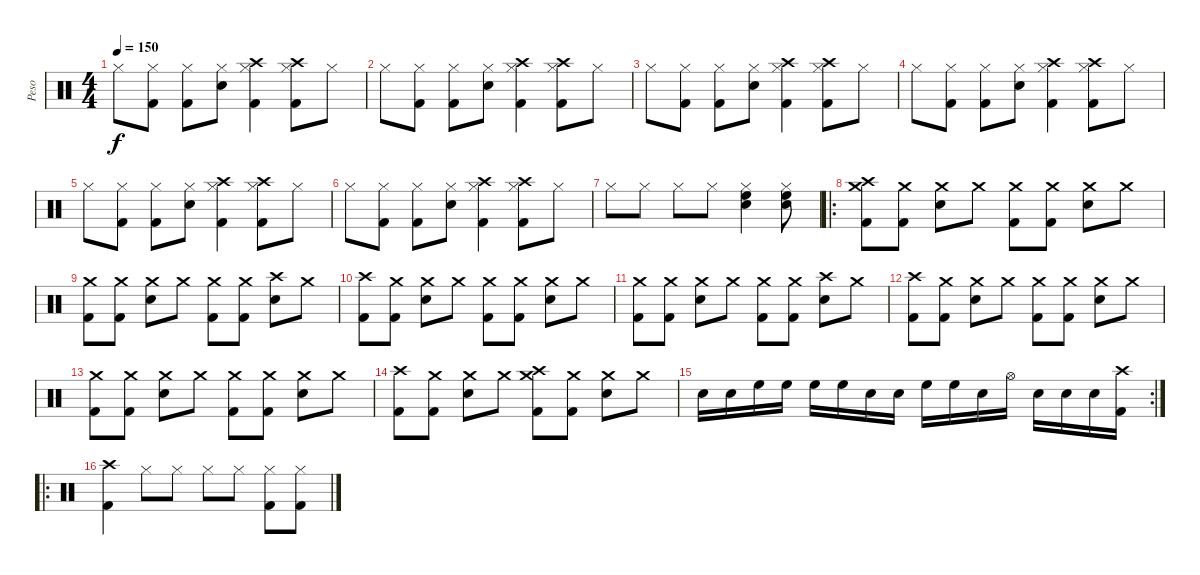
\track ("Peso" "Peso") {instrument percussion}
\staff {score}
\articulation defaults
\ts (4 4)
\tempo 150
\clef neutral
\ks c "Hi-Hat (closed)".8{dy f}
("Hi-Hat (closed)" "Kick (hit) 2").8 ("Hi-Hat (closed)" "Kick (hit) 2").8 ("Hi-Hat (closed)" "Snare (hit) 2").8 ("Crash high (hit)" "Hi-Hat (closed)" "Kick (hit) 2").4 ("Crash high (hit)" "Hi-Hat (closed)" "Kick (hit) 2").8 "Hi-Hat (closed)".8 |
"Hi-Hat (closed)".8 ("Hi-Hat (closed)" "Kick (hit) 2").8 ("Hi-Hat (closed)" "Kick (hit) 2").8 ("Hi-Hat (closed)" "Snare (hit) 2").8 ("Crash high (hit)" "Hi-Hat (closed)" "Kick (hit) 2").4 ("Crash high (hit)" "Hi-Hat (closed)" "Kick (hit) 2").8 "Hi-Hat (closed)".8 |
"Hi-Hat (closed)".8 ("Hi-Hat (closed)" "Kick (hit) 2").8 ("Hi-Hat (closed)" "Kick (hit) 2").8 ("Hi-Hat (closed)" "Snare (hit) 2").8 ("Crash high (hit)" "Hi-Hat (closed)" "Kick (hit) 2").4 ("Crash high (hit)" "Hi-Hat (closed)" "Kick (hit) 2").8 "Hi-Hat (closed)".8 |
"Hi-Hat (closed)".8 ("Hi-Hat (closed)" "Kick (hit) 2").8 ("Hi-Hat (closed)" "Kick (hit) 2").8 ("Hi-Hat (closed)" "Snare (hit) 2").8 ("Crash high (hit)" "Hi-Hat (closed)" "Kick (hit) 2").4 ("Crash high (hit)" "Hi-Hat (closed)" "Kick (hit) 2").8 "Hi-Hat (closed)".8 |
"Hi-Hat (closed)".8 ("Hi-Hat (closed)" "Kick (hit) 2").8 ("Hi-Hat (closed)" "Kick (hit) 2").8 ("Hi-Hat (closed)" "Snare (hit) 2").8 ("Crash high (hit)" "Hi-Hat (closed)" "Kick (hit) 2").4 ("Crash high (hit)" "Hi-Hat (closed)" "Kick (hit) 2").8 "Hi-Hat (closed)".8 |
"Hi-Hat (closed)".8 ("Hi-Hat (closed)" "Kick (hit) 2").8 ("Hi-Hat (closed)" "Kick (hit) 2").8 ("Hi-Hat (closed)" "Snare (hit) 2").8 ("Crash high (hit)" "Hi-Hat (closed)" "Kick (hit) 2").4 ("Crash high (hit)" "Hi-Hat (closed)" "Kick (hit) 2").8 "Hi-Hat (closed)".8 |
"Hi-Hat (closed)".8 "Hi-Hat (closed)".8 "Hi-Hat (closed)".8 "Hi-Hat (closed)".8 ("Hi-Hat (closed)" "Snare (hit) 2" "High Floor Tom (hit)").4 ("Hi-Hat (closed)" "Snare (hit) 2" "High Floor Tom (hit)").8 |
\ro
("Crash high (hit)" "Crash medium (hit)" "Kick (hit) 2").8 ("Crash medium (hit)" "Kick (hit) 2").8 ("Crash medium (hit)" "Snare (hit) 2").8 "Crash medium (hit)".8 ("Crash medium (hit)" "Kick (hit) 2").8 ("Crash medium (hit)" "Kick (hit) 2").8 ("Crash medium (hit)" "Snare (hit) 2").8 "Crash medium (hit)".8 |
("Crash medium (hit)" "Kick (hit) 2").8 ("Crash medium (hit)" "Kick (hit) 2").8 ("Crash medium (hit)" "Snare (hit) 2").8 "Crash medium (hit)".8 ("Crash medium (hit)" "Kick (hit) 2").8 ("Crash medium (hit)" "Kick (hit) 2").8 ("Crash high (hit)" "Snare (hit) 2").8 "Crash medium (hit)".8 |
("Crash high (hit)" "Kick (hit) 2").8 ("Crash medium (hit)" "Kick (hit) 2").8 ("Crash medium (hit)" "Snare (hit) 2").8 "Crash medium (hit)".8 ("Crash medium (hit)" "Kick (hit) 2").8 ("Crash medium (hit)" "Kick (hit) 2").8 ("Crash medium (hit)" "Snare (hit) 2").8 "Crash medium (hit)".8 |
("Crash medium (hit)" "Kick (hit) 2").8 ("Crash medium (hit)" "Kick (hit) 2").8 ("Crash medium (hit)" "Snare (hit) 2").8 "Crash medium (hit)".8 ("Crash medium (hit)" "Kick (hit) 2").8 ("Crash medium (hit)" "Kick (hit) 2").8 ("Crash high (hit)" "Snare (hit) 2").8 "Crash medium (hit)".8 |
("Crash high (hit)" "Kick (hit) 2").8 ("Crash medium (hit)" "Kick (hit) 2").8 ("Crash medium (hit)" "Snare (hit) 2").8 "Crash medium (hit)".8 ("Crash medium (hit)" "Kick (hit) 2").8 ("Crash medium (hit)" "Kick (hit) 2").8 ("Crash medium (hit)" "Snare (hit) 2").8 "Crash medium (hit)".8 |
("Crash medium (hit)" "Kick (hit) 2").8 ("Crash medium (hit)" "Kick (hit) 2").8 ("Crash medium (hit)" "Snare (hit) 2").8 "Crash medium (hit)".8 ("Crash medium (hit)" "Kick (hit) 2").8 ("Crash medium (hit)" "Kick (hit) 2").8 ("Crash medium (hit)" "Snare (hit) 2").8 "Crash medium (hit)".8 |
("Crash high (hit)" "Kick (hit) 2").8 ("Crash medium (hit)" "Kick (hit) 2").8 ("Crash medium (hit)" "Snare (hit) 2").8 "Crash medium (hit)".8 ("Crash high (hit)" "Crash medium (hit)" "Kick (hit) 2").8 ("Crash medium (hit)" "Kick (hit) 2").8 ("Crash medium (hit)" "Snare (hit) 2").8 "Crash medium (hit)".8 |
\rc 2 "Snare (hit) 2".16 "Snare (hit) 2".16 "High Floor Tom (hit)".16 "High Floor Tom (hit)".16 "High Floor Tom (hit)".16 "High Floor Tom (hit)".16 "Snare (hit) 2".16 "Snare (hit) 2".16 "High Floor Tom (hit)".16 "High Floor Tom (hit)".16 "Snare (hit) 2".16 "Hi-Hat (open)".16 "Snare (hit) 2".16 "Snare (hit) 2".16 "Snare (hit) 2".16
("Crash high (hit)" "Kick (hit) 2").16 |
\ro
("Crash high (hit)" "Kick (hit) 2").4 "Hi-Hat (closed)".8 "Hi-Hat (closed)".8 "Hi-Hat (closed)".8 "Hi-Hat (closed)".8 ("Hi-Hat (closed)" "Kick (hit) 2").8 ("Hi-Hat (closed)" "Kick (hit) 2").8
